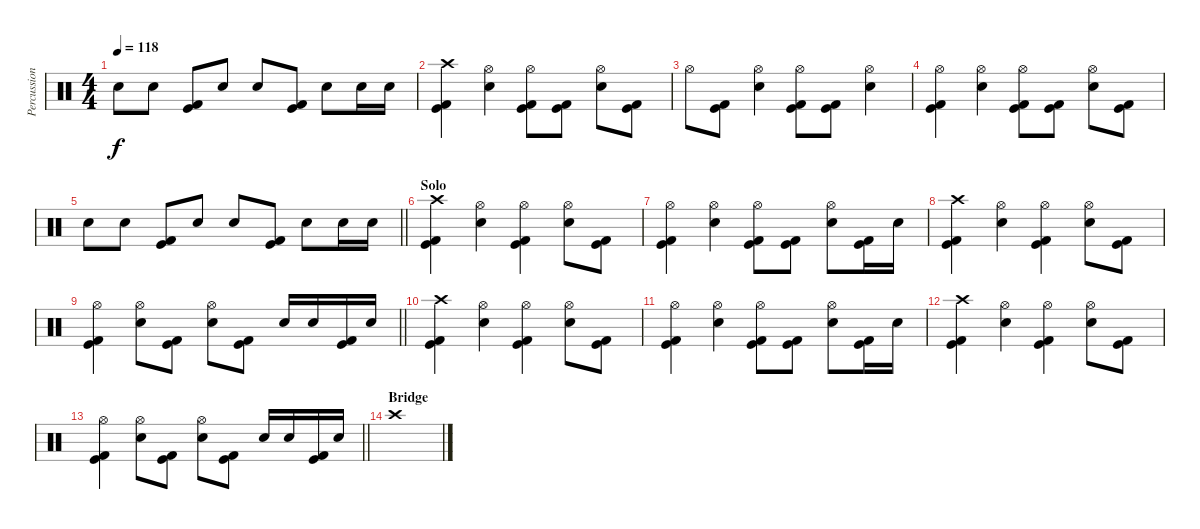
\track ("Percussion" "Percussion") {instrument percussion}
\staff {score}
\articulation defaults
\ts (4 4)
\tempo 118
\clef neutral
\ks c "Electric Snare (hit)".8{dy f} "Electric Snare (hit)".8
("Kick (hit)" "Kick (hit) 2").8 "Electric Snare (hit)".8 "Electric Snare (hit)".8 ("Kick (hit)" "Kick (hit) 2").8 "Electric Snare (hit)".8 "Electric Snare (hit)".16 "Electric Snare (hit)".16 |
("Crash high (hit)" "Kick (hit)" "Kick (hit) 2").4 ("Hi-Hat (open)" "Electric Snare (hit)").4 ("Hi-Hat (open)" "Kick (hit)" "Kick (hit) 2").8 ("Kick (hit)" "Kick (hit) 2").8 ("Hi-Hat (open)" "Electric Snare (hit)").8 ("Kick (hit)" "Kick (hit) 2").8 |
"Hi-Hat (open)".8 ("Kick (hit)" "Kick (hit) 2").8 ("Hi-Hat (open)" "Electric Snare (hit)").4 ("Hi-Hat (open)" "Kick (hit)" "Kick (hit) 2").8 ("Kick (hit)" "Kick (hit) 2").8 ("Hi-Hat (open)" "Electric Snare (hit)").4 |
("Hi-Hat (open)" "Kick (hit)" "Kick (hit) 2").4 ("Hi-Hat (open)" "Electric Snare (hit)").4 ("Hi-Hat (open)" "Kick (hit)" "Kick (hit) 2").8 ("Kick (hit)" "Kick (hit) 2").8 ("Hi-Hat (open)" "Electric Snare (hit)").8 ("Kick (hit)" "Kick (hit) 2").8 |
\barLineRight lightlight "Electric Snare (hit)".8 "Electric Snare (hit)".8
("Kick (hit)" "Kick (hit) 2").8 "Electric Snare (hit)".8 "Electric Snare (hit)".8 ("Kick (hit)" "Kick (hit) 2").8 "Electric Snare (hit)".8 "Electric Snare (hit)".16 "Electric Snare (hit)".16 |
\section ("" "Solo")
("Crash high (hit)" "Kick (hit)" "Kick (hit) 2").4 ("Hi-Hat (open)" "Electric Snare (hit)").4 ("Hi-Hat (open)" "Kick (hit)" "Kick (hit) 2").4 ("Hi-Hat (open)" "Electric Snare (hit)").8 ("Kick (hit)" "Kick (hit) 2").8 |
("Hi-Hat (open)" "Kick (hit)" "Kick (hit) 2").4 ("Hi-Hat (open)" "Electric Snare (hit)").4 ("Hi-Hat (open)" "Kick (hit)" "Kick (hit) 2").8 ("Kick (hit)" "Kick (hit) 2").8 ("Hi-Hat (open)" "Electric Snare (hit)").8 ("Kick (hit)" "Kick (hit) 2").16 "Electric Snare (hit)".16 |
("Crash high (hit)" "Kick (hit)" "Kick (hit) 2").4 ("Hi-Hat (open)" "Electric Snare (hit)").4 ("Hi-Hat (open)" "Kick (hit)" "Kick (hit) 2").4 ("Hi-Hat (open)" "Electric Snare (hit)").8 ("Kick (hit)" "Kick (hit) 2").8 |
\barLineRight lightlight
("Hi-Hat (open)" "Kick (hit)" "Kick (hit) 2").4 ("Hi-Hat (open)" "Electric Snare (hit)").8 ("Kick (hit)" "Kick (hit) 2").8 ("Hi-Hat (open)" "Electric Snare (hit)").8 ("Kick (hit)" "Kick (hit) 2").8 "Electric Snare (hit)".16 "Electric Snare (hit)".16 ("Kick (hit)" "Kick (hit) 2").16 "Electric Snare (hit)".16 |
("Crash high (hit)" "Kick (hit)" "Kick (hit) 2").4 ("Hi-Hat (open)" "Electric Snare (hit)").4 ("Hi-Hat (open)" "Kick (hit)" "Kick (hit) 2").4 ("Hi-Hat (open)" "Electric Snare (hit)").8 ("Kick (hit)" "Kick (hit) 2").8 |
("Hi-Hat (open)" "Kick (hit)" "Kick (hit) 2").4 ("Hi-Hat (open)" "Electric Snare (hit)").4 ("Hi-Hat (open)" "Kick (hit)" "Kick (hit) 2").8 ("Kick (hit)" "Kick (hit) 2").8 ("Hi-Hat (open)" "Electric Snare (hit)").8 ("Kick (hit)" "Kick (hit) 2").16 "Electric Snare (hit)".16 |
("Crash high (hit)" "Kick (hit)" "Kick (hit) 2").4 ("Hi-Hat (open)" "Electric Snare (hit)").4 ("Hi-Hat (open)" "Kick (hit)" "Kick (hit) 2").4 ("Hi-Hat (open)" "Electric Snare (hit)").8 ("Kick (hit)" "Kick (hit) 2").8 |
\barLineRight lightlight
("Hi-Hat (open)" "Kick (hit)" "Kick (hit) 2").4 ("Hi-Hat (open)" "Electric Snare (hit)").8 ("Kick (hit)" "Kick (hit) 2").8 ("Hi-Hat (open)" "Electric Snare (hit)").8 ("Kick (hit)" "Kick (hit) 2").8 "Electric Snare (hit)".16 "Electric Snare (hit)".16 ("Kick (hit)" "Kick (hit) 2").16 "Electric Snare (hit)".16 |
\section ("" "Bridge")
"Crash high (hit)".1
